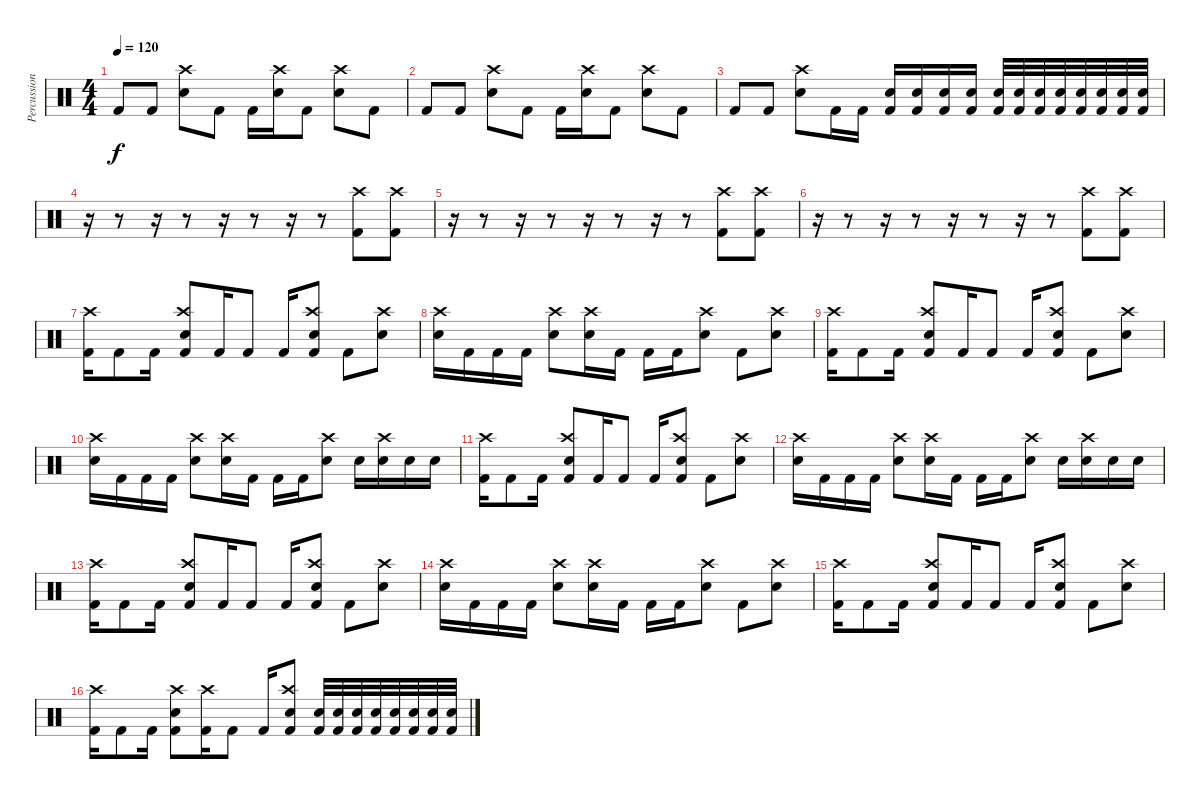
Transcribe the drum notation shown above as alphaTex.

\track ("Percussion" "Percussion") {instrument percussion}
\staff {score}
\articulation defaults
\ts (4 4)
\tempo 120
\clef neutral
\ks c "Kick (hit) 2".8{dy f} "Kick (hit) 2".8
("Crash high (hit)" "Snare (hit) 2").8 "Kick (hit) 2".8 "Kick (hit) 2".16 ("Crash high (hit)" "Snare (hit) 2").16 "Kick (hit) 2".8 ("Crash high (hit)" "Snare (hit) 2").8 "Kick (hit) 2".8 |
"Kick (hit) 2".8 "Kick (hit) 2".8 ("Crash high (hit)" "Snare (hit) 2").8 "Kick (hit) 2".8 "Kick (hit) 2".16 ("Crash high (hit)" "Snare (hit) 2").16 "Kick (hit) 2".8 ("Crash high (hit)" "Snare (hit) 2").8 "Kick (hit) 2".8 |
"Kick (hit) 2".8 "Kick (hit) 2".8 ("Crash high (hit)" "Snare (hit) 2").8 "Kick (hit) 2".16 "Kick (hit) 2".16 ("Kick (hit) 2" "Snare (hit) 2").16 ("Kick (hit) 2" "Snare (hit) 2").16 ("Kick (hit) 2" "Snare (hit) 2").16 ("Kick (hit) 2" "Snare (hit) 2").16 ("Snare (hit) 2" "Kick (hit) 2").32 ("Snare (hit) 2" "Kick (hit) 2").32 ("Snare (hit) 2" "Kick (hit) 2").32 ("Snare (hit) 2" "Kick (hit) 2").32 ("Snare (hit) 2" "Kick (hit) 2").32 ("Snare (hit) 2" "Kick (hit) 2").32 ("Snare (hit) 2" "Kick (hit) 2").32 ("Snare (hit) 2" "Kick (hit) 2").32 |
r.16 r.8 r.16 r.8 r.16 r.8 r.16 r.8 ("Kick (hit) 2" "Crash high (hit)").8 ("Kick (hit) 2" "Crash high (hit)").8 |
r.16 r.8 r.16 r.8 r.16 r.8 r.16 r.8 ("Kick (hit) 2" "Crash high (hit)").8 ("Kick (hit) 2" "Crash high (hit)").8 |
r.16 r.8 r.16 r.8 r.16 r.8 r.16 r.8 ("Kick (hit) 2" "Crash high (hit)").8 ("Kick (hit) 2" "Crash high (hit)").8 |
("Crash high (hit)" "Kick (hit) 2").16 "Kick (hit) 2".8 "Kick (hit) 2".16 ("Crash high (hit)" "Snare (hit) 2" "Kick (hit) 2").8 "Kick (hit) 2".16 "Kick (hit) 2".8 "Kick (hit) 2".16 ("Crash high (hit)" "Snare (hit) 2" "Kick (hit) 2").8 "Kick (hit) 2".8 ("Crash high (hit)" "Snare (hit) 2").8 |
("Crash high (hit)" "Snare (hit) 2").16 "Kick (hit) 2".16 "Kick (hit) 2".16 "Kick (hit) 2".16 ("Crash high (hit)" "Snare (hit) 2").8 ("Crash high (hit)" "Snare (hit) 2").16 "Kick (hit) 2".16 "Kick (hit) 2".16 "Kick (hit) 2".16 ("Crash high (hit)" "Snare (hit) 2").8 "Kick (hit) 2".8 ("Crash high (hit)" "Snare (hit) 2").8 |
("Crash high (hit)" "Kick (hit) 2").16 "Kick (hit) 2".8 "Kick (hit) 2".16 ("Crash high (hit)" "Snare (hit) 2" "Kick (hit) 2").8 "Kick (hit) 2".16 "Kick (hit) 2".8 "Kick (hit) 2".16 ("Crash high (hit)" "Snare (hit) 2" "Kick (hit) 2").8 "Kick (hit) 2".8 ("Crash high (hit)" "Snare (hit) 2").8 |
("Crash high (hit)" "Snare (hit) 2").16 "Kick (hit) 2".16 "Kick (hit) 2".16 "Kick (hit) 2".16 ("Crash high (hit)" "Snare (hit) 2").8 ("Crash high (hit)" "Snare (hit) 2").16 "Kick (hit) 2".16 "Kick (hit) 2".16 "Kick (hit) 2".16 ("Crash high (hit)" "Snare (hit) 2").8 "Snare (hit) 2".16 ("Crash high (hit)" "Snare (hit) 2").16 "Snare (hit) 2".16 "Snare (hit) 2".16 |
("Crash high (hit)" "Kick (hit) 2").16 "Kick (hit) 2".8 "Kick (hit) 2".16 ("Crash high (hit)" "Snare (hit) 2" "Kick (hit) 2").8 "Kick (hit) 2".16 "Kick (hit) 2".8 "Kick (hit) 2".16 ("Crash high (hit)" "Snare (hit) 2" "Kick (hit) 2").8 "Kick (hit) 2".8 ("Crash high (hit)" "Snare (hit) 2").8 |
("Crash high (hit)" "Snare (hit) 2").16 "Kick (hit) 2".16 "Kick (hit) 2".16 "Kick (hit) 2".16 ("Crash high (hit)" "Snare (hit) 2").8 ("Crash high (hit)" "Snare (hit) 2").16 "Kick (hit) 2".16 "Kick (hit) 2".16 "Kick (hit) 2".16 ("Crash high (hit)" "Snare (hit) 2").8 "Snare (hit) 2".16 ("Crash high (hit)" "Snare (hit) 2").16 "Snare (hit) 2".16 "Snare (hit) 2".16 |
("Crash high (hit)" "Kick (hit) 2").16 "Kick (hit) 2".8 "Kick (hit) 2".16 ("Crash high (hit)" "Snare (hit) 2" "Kick (hit) 2").8 "Kick (hit) 2".16 "Kick (hit) 2".8 "Kick (hit) 2".16 ("Crash high (hit)" "Snare (hit) 2" "Kick (hit) 2").8 "Kick (hit) 2".8 ("Crash high (hit)" "Snare (hit) 2").8 |
("Crash high (hit)" "Snare (hit) 2").16 "Kick (hit) 2".16 "Kick (hit) 2".16 "Kick (hit) 2".16 ("Crash high (hit)" "Snare (hit) 2").8 ("Crash high (hit)" "Snare (hit) 2").16 "Kick (hit) 2".16 "Kick (hit) 2".16 "Kick (hit) 2".16 ("Crash high (hit)" "Snare (hit) 2").8 "Kick (hit) 2".8 ("Crash high (hit)" "Snare (hit) 2").8 |
("Crash high (hit)" "Kick (hit) 2").16 "Kick (hit) 2".8 "Kick (hit) 2".16 ("Crash high (hit)" "Snare (hit) 2" "Kick (hit) 2").8 "Kick (hit) 2".16 "Kick (hit) 2".8 "Kick (hit) 2".16 ("Crash high (hit)" "Snare (hit) 2" "Kick (hit) 2").8 "Kick (hit) 2".8 ("Crash high (hit)" "Snare (hit) 2").8 |
("Crash high (hit)" "Kick (hit) 2").16 "Kick (hit) 2".8 "Kick (hit) 2".16 ("Crash high (hit)" "Snare (hit) 2" "Kick (hit) 2").8 ("Crash high (hit)" "Kick (hit) 2").16 "Kick (hit) 2".8 "Kick (hit) 2".16 ("Crash high (hit)" "Snare (hit) 2" "Kick (hit) 2").8 ("Snare (hit) 2" "Kick (hit) 2").32 ("Snare (hit) 2" "Kick (hit) 2").32 ("Snare (hit) 2" "Kick (hit) 2").32 ("Snare (hit) 2" "Kick (hit) 2").32 ("Snare (hit) 2" "Kick (hit) 2").32 ("Snare (hit) 2" "Kick (hit) 2").32 ("Snare (hit) 2" "Kick (hit) 2").32 ("Snare (hit) 2" "Kick (hit) 2").32
